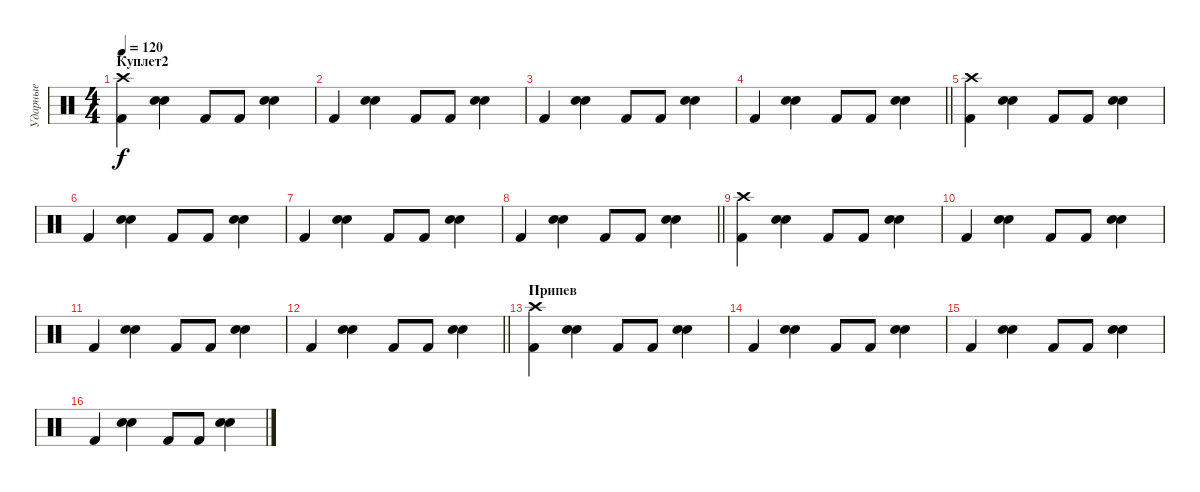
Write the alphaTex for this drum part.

\track ("Ударные" "Ударные") {instrument percussion}
\staff {score}
\articulation defaults
\ts (4 4)
\section ("" "Куплет2")
\tempo 120
\clef neutral
\ks c
("Kick (hit) 2" "Crash high (hit)").4{dy f} ("Snare (hit) 2" "Electric Snare (hit)").4 "Kick (hit) 2".8 "Kick (hit) 2".8 ("Snare (hit) 2" "Electric Snare (hit)").4 |
"Kick (hit) 2".4 ("Snare (hit) 2" "Electric Snare (hit)").4 "Kick (hit) 2".8 "Kick (hit) 2".8 ("Snare (hit) 2" "Electric Snare (hit)").4 |
"Kick (hit) 2".4 ("Snare (hit) 2" "Electric Snare (hit)").4 "Kick (hit) 2".8 "Kick (hit) 2".8 ("Snare (hit) 2" "Electric Snare (hit)").4 |
\barLineRight lightlight "Kick (hit) 2".4
("Snare (hit) 2" "Electric Snare (hit)").4 "Kick (hit) 2".8 "Kick (hit) 2".8 ("Snare (hit) 2" "Electric Snare (hit)").4 |
("Kick (hit) 2" "Crash high (hit)").4 ("Snare (hit) 2" "Electric Snare (hit)").4 "Kick (hit) 2".8 "Kick (hit) 2".8 ("Snare (hit) 2" "Electric Snare (hit)").4 |
"Kick (hit) 2".4 ("Snare (hit) 2" "Electric Snare (hit)").4 "Kick (hit) 2".8 "Kick (hit) 2".8 ("Snare (hit) 2" "Electric Snare (hit)").4 |
"Kick (hit) 2".4 ("Snare (hit) 2" "Electric Snare (hit)").4 "Kick (hit) 2".8 "Kick (hit) 2".8 ("Snare (hit) 2" "Electric Snare (hit)").4 |
\barLineRight lightlight "Kick (hit) 2".4
("Snare (hit) 2" "Electric Snare (hit)").4 "Kick (hit) 2".8 "Kick (hit) 2".8 ("Snare (hit) 2" "Electric Snare (hit)").4 |
("Kick (hit) 2" "Crash high (hit)").4 ("Snare (hit) 2" "Electric Snare (hit)").4 "Kick (hit) 2".8 "Kick (hit) 2".8 ("Snare (hit) 2" "Electric Snare (hit)").4 |
"Kick (hit) 2".4 ("Snare (hit) 2" "Electric Snare (hit)").4 "Kick (hit) 2".8 "Kick (hit) 2".8 ("Snare (hit) 2" "Electric Snare (hit)").4 |
"Kick (hit) 2".4 ("Snare (hit) 2" "Electric Snare (hit)").4 "Kick (hit) 2".8 "Kick (hit) 2".8 ("Snare (hit) 2" "Electric Snare (hit)").4 |
\barLineRight lightlight "Kick (hit) 2".4
("Snare (hit) 2" "Electric Snare (hit)").4 "Kick (hit) 2".8 "Kick (hit) 2".8 ("Snare (hit) 2" "Electric Snare (hit)").4 |
\section ("" "Припев")
("Kick (hit) 2" "Crash high (hit)").4 ("Snare (hit) 2" "Electric Snare (hit)").4 "Kick (hit) 2".8 "Kick (hit) 2".8 ("Snare (hit) 2" "Electric Snare (hit)").4 |
"Kick (hit) 2".4 ("Snare (hit) 2" "Electric Snare (hit)").4 "Kick (hit) 2".8 "Kick (hit) 2".8 ("Snare (hit) 2" "Electric Snare (hit)").4 |
"Kick (hit) 2".4 ("Snare (hit) 2" "Electric Snare (hit)").4 "Kick (hit) 2".8 "Kick (hit) 2".8 ("Snare (hit) 2" "Electric Snare (hit)").4 |
"Kick (hit) 2".4 ("Snare (hit) 2" "Electric Snare (hit)").4 "Kick (hit) 2".8 "Kick (hit) 2".8 ("Snare (hit) 2" "Electric Snare (hit)").4
